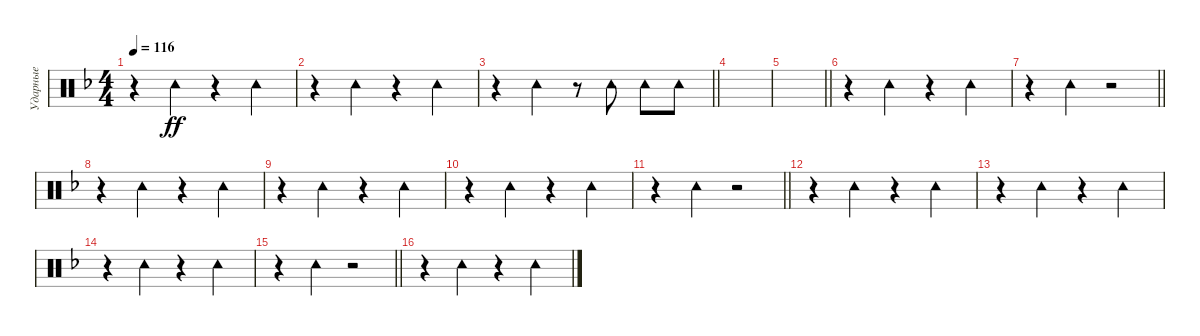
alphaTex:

\track ("Ударные" "Ударные") {instrument percussion}
\staff {score}
\articulation defaults
\ts (4 4)
\tempo 116
\clef neutral
\ks dminor
r.4{dy ff} "Tambourine (hit)".4 r.4 "Tambourine (hit)".4 |
r.4 "Tambourine (hit)".4 r.4 "Tambourine (hit)".4 |
\barLineRight lightlight
r.4 "Tambourine (hit)".4 r.8 "Tambourine (hit)".8 "Tambourine (hit)".8 "Tambourine (hit)".8 |
|
\barLineRight lightlight
|
r.4 "Tambourine (hit)".4 r.4 "Tambourine (hit)".4 |
\barLineRight lightlight
r.4 "Tambourine (hit)".4 r.2 |
r.4 "Tambourine (hit)".4 r.4 "Tambourine (hit)".4 |
r.4 "Tambourine (hit)".4 r.4 "Tambourine (hit)".4 |
r.4 "Tambourine (hit)".4 r.4 "Tambourine (hit)".4 |
\barLineRight lightlight
r.4 "Tambourine (hit)".4 r.2 |
r.4 "Tambourine (hit)".4 r.4 "Tambourine (hit)".4 |
r.4 "Tambourine (hit)".4 r.4 "Tambourine (hit)".4 |
r.4 "Tambourine (hit)".4 r.4 "Tambourine (hit)".4 |
\barLineRight lightlight
r.4 "Tambourine (hit)".4 r.2 |
r.4 "Tambourine (hit)".4 r.4 "Tambourine (hit)".4
